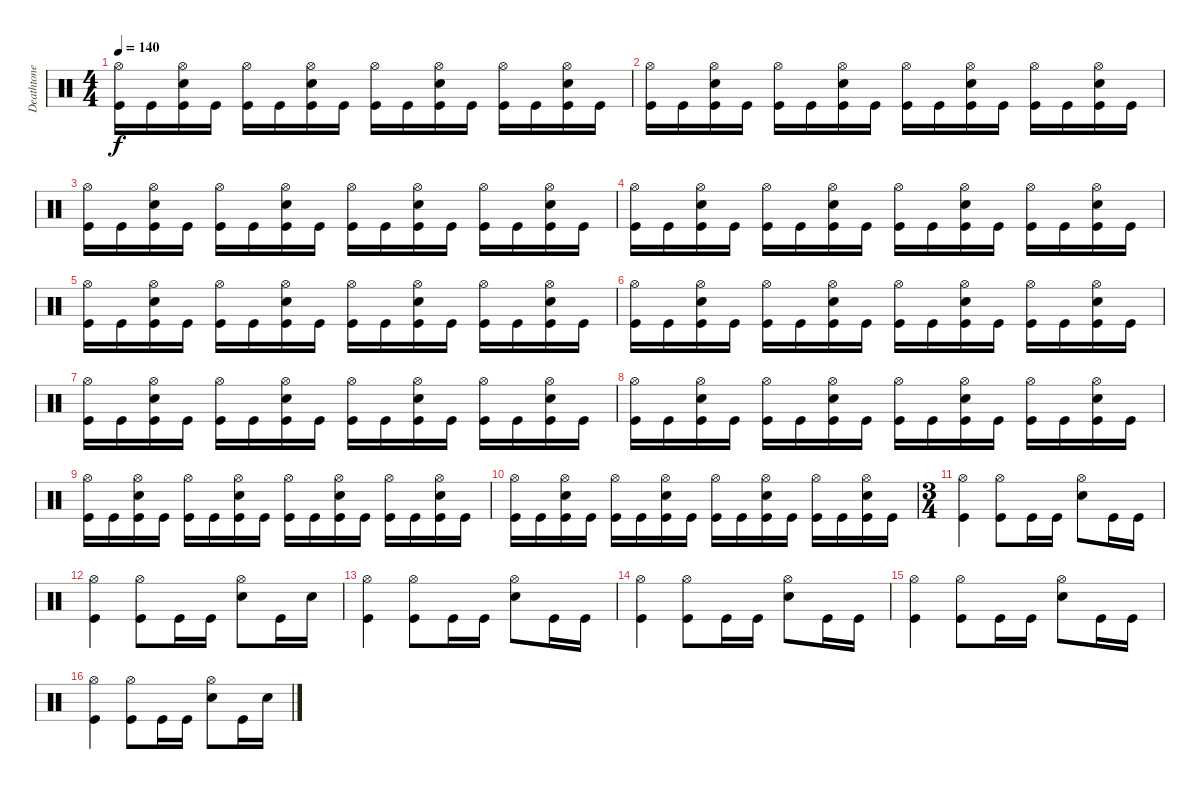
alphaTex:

\track ("Deathtone" "Deathtone") {instrument percussion}
\staff {score}
\articulation defaults
\ts (4 4)
\tempo 140
\clef neutral
\ks c
("Hi-Hat (open)" "Kick (hit)").16{dy f} "Kick (hit)".16 ("Hi-Hat (open)" "Snare (hit) 2" "Kick (hit)").16 "Kick (hit)".16 ("Hi-Hat (open)" "Kick (hit)").16 "Kick (hit)".16 ("Hi-Hat (open)" "Snare (hit) 2" "Kick (hit)").16 "Kick (hit)".16 ("Hi-Hat (open)" "Kick (hit)").16 "Kick (hit)".16 ("Hi-Hat (open)" "Snare (hit) 2" "Kick (hit)").16 "Kick (hit)".16 ("Hi-Hat (open)" "Kick (hit)").16 "Kick (hit)".16 ("Hi-Hat (open)" "Snare (hit) 2" "Kick (hit)").16 "Kick (hit)".16 |
("Hi-Hat (open)" "Kick (hit)").16 "Kick (hit)".16 ("Hi-Hat (open)" "Snare (hit) 2" "Kick (hit)").16 "Kick (hit)".16 ("Hi-Hat (open)" "Kick (hit)").16 "Kick (hit)".16 ("Hi-Hat (open)" "Snare (hit) 2" "Kick (hit)").16 "Kick (hit)".16 ("Hi-Hat (open)" "Kick (hit)").16 "Kick (hit)".16 ("Hi-Hat (open)" "Snare (hit) 2" "Kick (hit)").16 "Kick (hit)".16 ("Hi-Hat (open)" "Kick (hit)").16 "Kick (hit)".16 ("Hi-Hat (open)" "Snare (hit) 2" "Kick (hit)").16 "Kick (hit)".16 |
("Hi-Hat (open)" "Kick (hit)").16 "Kick (hit)".16 ("Hi-Hat (open)" "Snare (hit) 2" "Kick (hit)").16 "Kick (hit)".16 ("Hi-Hat (open)" "Kick (hit)").16 "Kick (hit)".16 ("Hi-Hat (open)" "Snare (hit) 2" "Kick (hit)").16 "Kick (hit)".16 ("Hi-Hat (open)" "Kick (hit)").16 "Kick (hit)".16 ("Hi-Hat (open)" "Snare (hit) 2" "Kick (hit)").16 "Kick (hit)".16 ("Hi-Hat (open)" "Kick (hit)").16 "Kick (hit)".16 ("Hi-Hat (open)" "Snare (hit) 2" "Kick (hit)").16 "Kick (hit)".16 |
("Hi-Hat (open)" "Kick (hit)").16 "Kick (hit)".16 ("Hi-Hat (open)" "Snare (hit) 2" "Kick (hit)").16 "Kick (hit)".16 ("Hi-Hat (open)" "Kick (hit)").16 "Kick (hit)".16 ("Hi-Hat (open)" "Snare (hit) 2" "Kick (hit)").16 "Kick (hit)".16 ("Hi-Hat (open)" "Kick (hit)").16 "Kick (hit)".16 ("Hi-Hat (open)" "Snare (hit) 2" "Kick (hit)").16 "Kick (hit)".16 ("Hi-Hat (open)" "Kick (hit)").16 "Kick (hit)".16 ("Hi-Hat (open)" "Snare (hit) 2" "Kick (hit)").16 "Kick (hit)".16 |
("Hi-Hat (open)" "Kick (hit)").16 "Kick (hit)".16 ("Hi-Hat (open)" "Snare (hit) 2" "Kick (hit)").16 "Kick (hit)".16 ("Hi-Hat (open)" "Kick (hit)").16 "Kick (hit)".16 ("Hi-Hat (open)" "Snare (hit) 2" "Kick (hit)").16 "Kick (hit)".16 ("Hi-Hat (open)" "Kick (hit)").16 "Kick (hit)".16 ("Hi-Hat (open)" "Snare (hit) 2" "Kick (hit)").16 "Kick (hit)".16 ("Hi-Hat (open)" "Kick (hit)").16 "Kick (hit)".16 ("Hi-Hat (open)" "Snare (hit) 2" "Kick (hit)").16 "Kick (hit)".16 |
("Hi-Hat (open)" "Kick (hit)").16 "Kick (hit)".16 ("Hi-Hat (open)" "Snare (hit) 2" "Kick (hit)").16 "Kick (hit)".16 ("Hi-Hat (open)" "Kick (hit)").16 "Kick (hit)".16 ("Hi-Hat (open)" "Snare (hit) 2" "Kick (hit)").16 "Kick (hit)".16 ("Hi-Hat (open)" "Kick (hit)").16 "Kick (hit)".16 ("Hi-Hat (open)" "Snare (hit) 2" "Kick (hit)").16 "Kick (hit)".16 ("Hi-Hat (open)" "Kick (hit)").16 "Kick (hit)".16 ("Hi-Hat (open)" "Snare (hit) 2" "Kick (hit)").16 "Kick (hit)".16 |
("Hi-Hat (open)" "Kick (hit)").16 "Kick (hit)".16 ("Hi-Hat (open)" "Snare (hit) 2" "Kick (hit)").16 "Kick (hit)".16 ("Hi-Hat (open)" "Kick (hit)").16 "Kick (hit)".16 ("Hi-Hat (open)" "Snare (hit) 2" "Kick (hit)").16 "Kick (hit)".16 ("Hi-Hat (open)" "Kick (hit)").16 "Kick (hit)".16 ("Hi-Hat (open)" "Snare (hit) 2" "Kick (hit)").16 "Kick (hit)".16 ("Hi-Hat (open)" "Kick (hit)").16 "Kick (hit)".16 ("Hi-Hat (open)" "Snare (hit) 2" "Kick (hit)").16 "Kick (hit)".16 |
("Hi-Hat (open)" "Kick (hit)").16 "Kick (hit)".16 ("Hi-Hat (open)" "Snare (hit) 2" "Kick (hit)").16 "Kick (hit)".16 ("Hi-Hat (open)" "Kick (hit)").16 "Kick (hit)".16 ("Hi-Hat (open)" "Snare (hit) 2" "Kick (hit)").16 "Kick (hit)".16 ("Hi-Hat (open)" "Kick (hit)").16 "Kick (hit)".16 ("Hi-Hat (open)" "Snare (hit) 2" "Kick (hit)").16 "Kick (hit)".16 ("Hi-Hat (open)" "Kick (hit)").16 "Kick (hit)".16 ("Hi-Hat (open)" "Snare (hit) 2" "Kick (hit)").16 "Kick (hit)".16 |
("Hi-Hat (open)" "Kick (hit)").16 "Kick (hit)".16 ("Hi-Hat (open)" "Snare (hit) 2" "Kick (hit)").16 "Kick (hit)".16 ("Hi-Hat (open)" "Kick (hit)").16 "Kick (hit)".16 ("Hi-Hat (open)" "Snare (hit) 2" "Kick (hit)").16 "Kick (hit)".16 ("Hi-Hat (open)" "Kick (hit)").16 "Kick (hit)".16 ("Hi-Hat (open)" "Snare (hit) 2" "Kick (hit)").16 "Kick (hit)".16 ("Hi-Hat (open)" "Kick (hit)").16 "Kick (hit)".16 ("Hi-Hat (open)" "Snare (hit) 2" "Kick (hit)").16 "Kick (hit)".16 |
("Hi-Hat (open)" "Kick (hit)").16 "Kick (hit)".16 ("Hi-Hat (open)" "Snare (hit) 2" "Kick (hit)").16 "Kick (hit)".16 ("Hi-Hat (open)" "Kick (hit)").16 "Kick (hit)".16 ("Hi-Hat (open)" "Snare (hit) 2" "Kick (hit)").16 "Kick (hit)".16 ("Hi-Hat (open)" "Kick (hit)").16 "Kick (hit)".16 ("Hi-Hat (open)" "Snare (hit) 2" "Kick (hit)").16 "Kick (hit)".16 ("Hi-Hat (open)" "Kick (hit)").16 "Kick (hit)".16 ("Hi-Hat (open)" "Snare (hit) 2" "Kick (hit)").16 "Kick (hit)".16 |
\ts (3 4)
("Hi-Hat (open)" "Kick (hit)").4 ("Hi-Hat (open)" "Kick (hit)").8 "Kick (hit)".16 "Kick (hit)".16 ("Hi-Hat (open)" "Snare (hit) 2").8 "Kick (hit)".16 "Kick (hit)".16 |
("Hi-Hat (open)" "Kick (hit)").4 ("Hi-Hat (open)" "Kick (hit)").8 "Kick (hit)".16 "Kick (hit)".16 ("Hi-Hat (open)" "Snare (hit) 2").8 "Kick (hit)".16 "Snare (hit) 2".16 |
("Hi-Hat (open)" "Kick (hit)").4 ("Hi-Hat (open)" "Kick (hit)").8 "Kick (hit)".16 "Kick (hit)".16 ("Hi-Hat (open)" "Snare (hit) 2").8 "Kick (hit)".16 "Kick (hit)".16 |
("Hi-Hat (open)" "Kick (hit)").4 ("Hi-Hat (open)" "Kick (hit)").8 "Kick (hit)".16 "Kick (hit)".16 ("Hi-Hat (open)" "Snare (hit) 2").8 "Kick (hit)".16 "Kick (hit)".16 |
("Hi-Hat (open)" "Kick (hit)").4 ("Hi-Hat (open)" "Kick (hit)").8 "Kick (hit)".16 "Kick (hit)".16 ("Hi-Hat (open)" "Snare (hit) 2").8 "Kick (hit)".16 "Kick (hit)".16 |
("Hi-Hat (open)" "Kick (hit)").4 ("Hi-Hat (open)" "Kick (hit)").8 "Kick (hit)".16 "Kick (hit)".16 ("Hi-Hat (open)" "Snare (hit) 2").8 "Kick (hit)".16 "Snare (hit) 2".16
